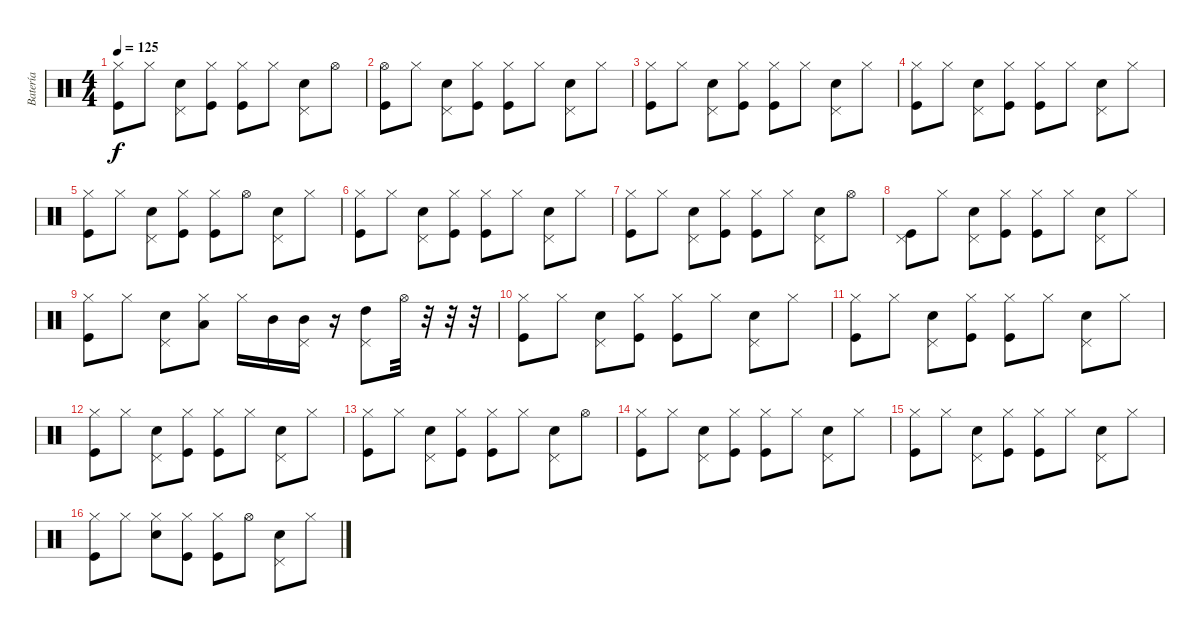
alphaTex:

\track ("Batería" "Batería") {instrument percussion}
\staff {score}
\articulation defaults
\ts (4 4)
\tempo 125
\clef neutral
\ks c
("Hi-Hat (closed)" "Kick (hit)").8{dy f} "Hi-Hat (closed)".8 ("Pedal Hi-Hat (hit)" "Snare (hit) 2").8 ("Hi-Hat (closed)" "Kick (hit)").8 ("Hi-Hat (closed)" "Kick (hit)").8 "Hi-Hat (closed)".8 ("Pedal Hi-Hat (hit)" "Snare (hit) 2").8 "Hi-Hat (open)".8 |
("Hi-Hat (open)" "Kick (hit)").8 "Hi-Hat (closed)".8 ("Pedal Hi-Hat (hit)" "Snare (hit) 2").8 ("Hi-Hat (closed)" "Kick (hit)").8 ("Hi-Hat (closed)" "Kick (hit)").8 "Hi-Hat (closed)".8 ("Pedal Hi-Hat (hit)" "Snare (hit) 2").8 "Hi-Hat (closed)".8 |
("Hi-Hat (closed)" "Kick (hit)").8 "Hi-Hat (closed)".8 ("Pedal Hi-Hat (hit)" "Snare (hit) 2").8 ("Hi-Hat (closed)" "Kick (hit)").8 ("Hi-Hat (closed)" "Kick (hit)").8 "Hi-Hat (closed)".8 ("Pedal Hi-Hat (hit)" "Snare (hit) 2").8 "Hi-Hat (closed)".8 |
("Hi-Hat (closed)" "Kick (hit)").8 "Hi-Hat (closed)".8 ("Pedal Hi-Hat (hit)" "Snare (hit) 2").8 ("Hi-Hat (closed)" "Kick (hit)").8 ("Hi-Hat (closed)" "Kick (hit)").8 "Hi-Hat (closed)".8 ("Pedal Hi-Hat (hit)" "Snare (hit) 2").8 "Hi-Hat (closed)".8 |
("Hi-Hat (closed)" "Kick (hit)").8 "Hi-Hat (closed)".8 ("Pedal Hi-Hat (hit)" "Snare (hit) 2").8 ("Hi-Hat (closed)" "Kick (hit)").8 ("Hi-Hat (closed)" "Kick (hit)").8 "Hi-Hat (open)".8 ("Pedal Hi-Hat (hit)" "Snare (hit) 2").8 "Hi-Hat (closed)".8 |
("Hi-Hat (closed)" "Kick (hit)").8 "Hi-Hat (closed)".8 ("Pedal Hi-Hat (hit)" "Snare (hit) 2").8 ("Hi-Hat (closed)" "Kick (hit)").8 ("Hi-Hat (closed)" "Kick (hit)").8 "Hi-Hat (closed)".8 ("Pedal Hi-Hat (hit)" "Snare (hit) 2").8 "Hi-Hat (closed)".8 |
("Hi-Hat (closed)" "Kick (hit)").8 "Hi-Hat (closed)".8 ("Pedal Hi-Hat (hit)" "Snare (hit) 2").8 ("Hi-Hat (closed)" "Kick (hit)").8 ("Hi-Hat (closed)" "Kick (hit)").8 "Hi-Hat (closed)".8 ("Pedal Hi-Hat (hit)" "Snare (hit) 2").8 "Hi-Hat (open)".8 |
("Pedal Hi-Hat (hit)" "Kick (hit)").8 "Hi-Hat (closed)".8 ("Pedal Hi-Hat (hit)" "Snare (hit) 2").8 ("Hi-Hat (closed)" "Kick (hit)").8 ("Hi-Hat (closed)" "Kick (hit)").8 "Hi-Hat (closed)".8 ("Pedal Hi-Hat (hit)" "Snare (hit) 2").8 "Hi-Hat (closed)".8 |
("Hi-Hat (closed)" "Kick (hit)").8 "Hi-Hat (closed)".8 ("Pedal Hi-Hat (hit)" "Snare (hit) 2").8 ("Hi-Hat (closed)" "Low Tom (hit)").8 "Hi-Hat (closed)".16 "Mid Tom (hit)".16 ("Pedal Hi-Hat (hit)" "Mid Tom (hit)").16 r.16 ("Pedal Hi-Hat (hit)" "High Tom (hit)").8 "Hi-Hat (open)".32 r.32 r.32 r.32 |
("Hi-Hat (closed)" "Kick (hit)").8 "Hi-Hat (closed)".8 ("Pedal Hi-Hat (hit)" "Snare (hit) 2").8 ("Hi-Hat (closed)" "Kick (hit)").8 ("Hi-Hat (closed)" "Kick (hit)").8 "Hi-Hat (closed)".8 ("Pedal Hi-Hat (hit)" "Snare (hit) 2").8 "Hi-Hat (closed)".8 |
("Hi-Hat (closed)" "Kick (hit)").8 "Hi-Hat (closed)".8 ("Pedal Hi-Hat (hit)" "Snare (hit) 2").8 ("Hi-Hat (closed)" "Kick (hit)").8 ("Hi-Hat (closed)" "Kick (hit)").8 "Hi-Hat (closed)".8 ("Pedal Hi-Hat (hit)" "Snare (hit) 2").8 "Hi-Hat (closed)".8 |
("Hi-Hat (closed)" "Kick (hit)").8 "Hi-Hat (closed)".8 ("Pedal Hi-Hat (hit)" "Snare (hit) 2").8 ("Hi-Hat (closed)" "Kick (hit)").8 ("Hi-Hat (closed)" "Kick (hit)").8 "Hi-Hat (closed)".8 ("Pedal Hi-Hat (hit)" "Snare (hit) 2").8 "Hi-Hat (closed)".8 |
("Hi-Hat (closed)" "Kick (hit)").8 "Hi-Hat (closed)".8 ("Pedal Hi-Hat (hit)" "Snare (hit) 2").8 ("Hi-Hat (closed)" "Kick (hit)").8 ("Hi-Hat (closed)" "Kick (hit)").8 "Hi-Hat (closed)".8 ("Pedal Hi-Hat (hit)" "Snare (hit) 2").8 "Hi-Hat (open)".8 |
("Hi-Hat (closed)" "Kick (hit)").8 "Hi-Hat (closed)".8 ("Pedal Hi-Hat (hit)" "Snare (hit) 2").8 ("Hi-Hat (closed)" "Kick (hit)").8 ("Hi-Hat (closed)" "Kick (hit)").8 "Hi-Hat (closed)".8 ("Pedal Hi-Hat (hit)" "Snare (hit) 2").8 "Hi-Hat (closed)".8 |
("Hi-Hat (closed)" "Kick (hit)").8 "Hi-Hat (closed)".8 ("Pedal Hi-Hat (hit)" "Snare (hit) 2").8 ("Hi-Hat (closed)" "Kick (hit)").8 ("Hi-Hat (closed)" "Kick (hit)").8 "Hi-Hat (closed)".8 ("Pedal Hi-Hat (hit)" "Snare (hit) 2").8 "Hi-Hat (closed)".8 |
("Hi-Hat (closed)" "Kick (hit)").8 "Hi-Hat (closed)".8 ("Hi-Hat (closed)" "Snare (hit) 2").8 ("Hi-Hat (closed)" "Kick (hit)").8 ("Hi-Hat (closed)" "Kick (hit)").8 "Hi-Hat (open)".8 ("Pedal Hi-Hat (hit)" "Snare (hit) 2").8 "Hi-Hat (closed)".8
